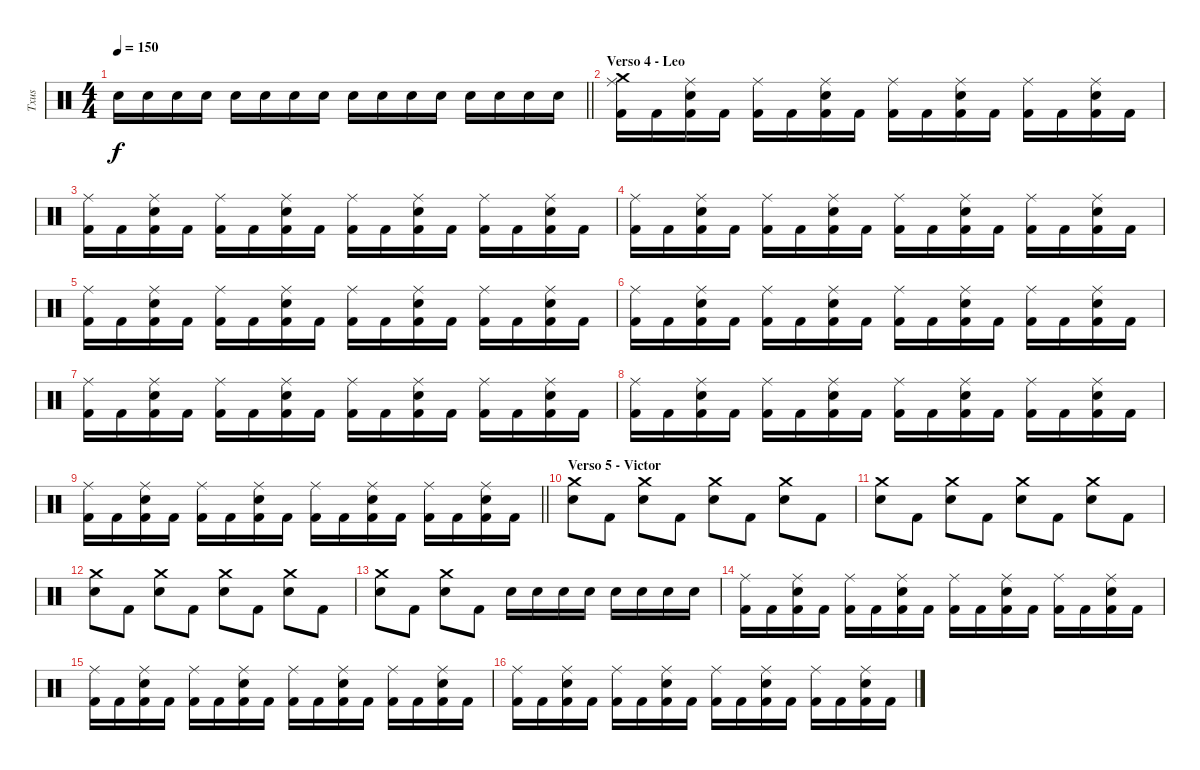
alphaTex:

\track ("Txus" "Txus") {instrument percussion}
\staff {score}
\articulation defaults
\ts (4 4)
\tempo 150
\clef neutral
\barLineRight lightlight
\ks c "Electric Snare (hit)".16{dy f} "Electric Snare (hit)".16 "Electric Snare (hit)".16 "Electric Snare (hit)".16 "Electric Snare (hit)".16 "Electric Snare (hit)".16 "Electric Snare (hit)".16 "Electric Snare (hit)".16 "Electric Snare (hit)".16 "Electric Snare (hit)".16 "Electric Snare (hit)".16 "Electric Snare (hit)".16 "Electric Snare (hit)".16 "Electric Snare (hit)".16 "Electric Snare (hit)".16 "Electric Snare (hit)".16
|
\section ("" "Verso 4 - Leo")
("Crash medium (hit)" "Ride (middle)" "Kick (hit) 2").16 "Kick (hit) 2".16 ("Ride (middle)" "Electric Snare (hit)" "Kick (hit) 2").16 "Kick (hit) 2".16 ("Ride (middle)" "Kick (hit) 2").16 "Kick (hit) 2".16 ("Ride (middle)" "Electric Snare (hit)" "Kick (hit) 2").16 "Kick (hit) 2".16 ("Ride (middle)" "Kick (hit) 2").16 "Kick (hit) 2".16 ("Ride (middle)" "Electric Snare (hit)" "Kick (hit) 2").16 "Kick (hit) 2".16 ("Ride (middle)" "Kick (hit) 2").16 "Kick (hit) 2".16 ("Ride (middle)" "Electric Snare (hit)" "Kick (hit) 2").16 "Kick (hit) 2".16 |
("Ride (middle)" "Kick (hit) 2").16 "Kick (hit) 2".16 ("Ride (middle)" "Electric Snare (hit)" "Kick (hit) 2").16 "Kick (hit) 2".16 ("Ride (middle)" "Kick (hit) 2").16 "Kick (hit) 2".16 ("Ride (middle)" "Electric Snare (hit)" "Kick (hit) 2").16 "Kick (hit) 2".16 ("Ride (middle)" "Kick (hit) 2").16 "Kick (hit) 2".16 ("Ride (middle)" "Electric Snare (hit)" "Kick (hit) 2").16 "Kick (hit) 2".16 ("Ride (middle)" "Kick (hit) 2").16 "Kick (hit) 2".16 ("Ride (middle)" "Electric Snare (hit)" "Kick (hit) 2").16 "Kick (hit) 2".16 |
("Ride (middle)" "Kick (hit) 2").16 "Kick (hit) 2".16 ("Ride (middle)" "Electric Snare (hit)" "Kick (hit) 2").16 "Kick (hit) 2".16 ("Ride (middle)" "Kick (hit) 2").16 "Kick (hit) 2".16 ("Ride (middle)" "Electric Snare (hit)" "Kick (hit) 2").16 "Kick (hit) 2".16 ("Ride (middle)" "Kick (hit) 2").16 "Kick (hit) 2".16 ("Ride (middle)" "Electric Snare (hit)" "Kick (hit) 2").16 "Kick (hit) 2".16 ("Ride (middle)" "Kick (hit) 2").16 "Kick (hit) 2".16 ("Ride (middle)" "Electric Snare (hit)" "Kick (hit) 2").16 "Kick (hit) 2".16 |
("Ride (middle)" "Kick (hit) 2").16 "Kick (hit) 2".16 ("Ride (middle)" "Electric Snare (hit)" "Kick (hit) 2").16 "Kick (hit) 2".16 ("Ride (middle)" "Kick (hit) 2").16 "Kick (hit) 2".16 ("Ride (middle)" "Electric Snare (hit)" "Kick (hit) 2").16 "Kick (hit) 2".16 ("Ride (middle)" "Kick (hit) 2").16 "Kick (hit) 2".16 ("Ride (middle)" "Electric Snare (hit)" "Kick (hit) 2").16 "Kick (hit) 2".16 ("Ride (middle)" "Kick (hit) 2").16 "Kick (hit) 2".16 ("Ride (middle)" "Electric Snare (hit)" "Kick (hit) 2").16 "Kick (hit) 2".16 |
("Ride (middle)" "Kick (hit) 2").16 "Kick (hit) 2".16 ("Ride (middle)" "Electric Snare (hit)" "Kick (hit) 2").16 "Kick (hit) 2".16 ("Ride (middle)" "Kick (hit) 2").16 "Kick (hit) 2".16 ("Ride (middle)" "Electric Snare (hit)" "Kick (hit) 2").16 "Kick (hit) 2".16 ("Ride (middle)" "Kick (hit) 2").16 "Kick (hit) 2".16 ("Ride (middle)" "Electric Snare (hit)" "Kick (hit) 2").16 "Kick (hit) 2".16 ("Ride (middle)" "Kick (hit) 2").16 "Kick (hit) 2".16 ("Ride (middle)" "Electric Snare (hit)" "Kick (hit) 2").16 "Kick (hit) 2".16 |
("Ride (middle)" "Kick (hit) 2").16 "Kick (hit) 2".16 ("Ride (middle)" "Electric Snare (hit)" "Kick (hit) 2").16 "Kick (hit) 2".16 ("Ride (middle)" "Kick (hit) 2").16 "Kick (hit) 2".16 ("Ride (middle)" "Electric Snare (hit)" "Kick (hit) 2").16 "Kick (hit) 2".16 ("Ride (middle)" "Kick (hit) 2").16 "Kick (hit) 2".16 ("Ride (middle)" "Electric Snare (hit)" "Kick (hit) 2").16 "Kick (hit) 2".16 ("Ride (middle)" "Kick (hit) 2").16 "Kick (hit) 2".16 ("Ride (middle)" "Electric Snare (hit)" "Kick (hit) 2").16 "Kick (hit) 2".16 |
("Ride (middle)" "Kick (hit) 2").16 "Kick (hit) 2".16 ("Ride (middle)" "Electric Snare (hit)" "Kick (hit) 2").16 "Kick (hit) 2".16 ("Ride (middle)" "Kick (hit) 2").16 "Kick (hit) 2".16 ("Ride (middle)" "Electric Snare (hit)" "Kick (hit) 2").16 "Kick (hit) 2".16 ("Ride (middle)" "Kick (hit) 2").16 "Kick (hit) 2".16 ("Ride (middle)" "Electric Snare (hit)" "Kick (hit) 2").16 "Kick (hit) 2".16 ("Ride (middle)" "Kick (hit) 2").16 "Kick (hit) 2".16 ("Ride (middle)" "Electric Snare (hit)" "Kick (hit) 2").16 "Kick (hit) 2".16 |
\barLineRight lightlight
("Ride (middle)" "Kick (hit) 2").16 "Kick (hit) 2".16 ("Ride (middle)" "Electric Snare (hit)" "Kick (hit) 2").16 "Kick (hit) 2".16 ("Ride (middle)" "Kick (hit) 2").16 "Kick (hit) 2".16 ("Ride (middle)" "Electric Snare (hit)" "Kick (hit) 2").16 "Kick (hit) 2".16 ("Ride (middle)" "Kick (hit) 2").16 "Kick (hit) 2".16 ("Ride (middle)" "Electric Snare (hit)" "Kick (hit) 2").16 "Kick (hit) 2".16 ("Ride (middle)" "Kick (hit) 2").16 "Kick (hit) 2".16 ("Ride (middle)" "Electric Snare (hit)" "Kick (hit) 2").16 "Kick (hit) 2".16 |
\section ("" "Verso 5 - Victor")
("Crash medium (hit)" "Electric Snare (hit)").8 "Kick (hit) 2".8 ("Crash medium (hit)" "Electric Snare (hit)").8 "Kick (hit) 2".8 ("Crash medium (hit)" "Electric Snare (hit)").8 "Kick (hit) 2".8 ("Crash medium (hit)" "Electric Snare (hit)").8 "Kick (hit) 2".8 |
("Crash medium (hit)" "Electric Snare (hit)").8 "Kick (hit) 2".8 ("Crash medium (hit)" "Electric Snare (hit)").8 "Kick (hit) 2".8 ("Crash medium (hit)" "Electric Snare (hit)").8 "Kick (hit) 2".8 ("Crash medium (hit)" "Electric Snare (hit)").8 "Kick (hit) 2".8 |
("Crash medium (hit)" "Electric Snare (hit)").8 "Kick (hit) 2".8 ("Crash medium (hit)" "Electric Snare (hit)").8 "Kick (hit) 2".8 ("Crash medium (hit)" "Electric Snare (hit)").8 "Kick (hit) 2".8 ("Crash medium (hit)" "Electric Snare (hit)").8 "Kick (hit) 2".8 |
("Crash medium (hit)" "Electric Snare (hit)").8 "Kick (hit) 2".8 ("Crash medium (hit)" "Electric Snare (hit)").8 "Kick (hit) 2".8 "Electric Snare (hit)".16 "Electric Snare (hit)".16 "Electric Snare (hit)".16 "Electric Snare (hit)".16 "Electric Snare (hit)".16 "Electric Snare (hit)".16 "Electric Snare (hit)".16 "Electric Snare (hit)".16 |
("Ride (middle)" "Kick (hit) 2").16 "Kick (hit) 2".16 ("Ride (middle)" "Electric Snare (hit)" "Kick (hit) 2").16 "Kick (hit) 2".16 ("Ride (middle)" "Kick (hit) 2").16 "Kick (hit) 2".16 ("Ride (middle)" "Electric Snare (hit)" "Kick (hit) 2").16 "Kick (hit) 2".16 ("Ride (middle)" "Kick (hit) 2").16 "Kick (hit) 2".16 ("Ride (middle)" "Electric Snare (hit)" "Kick (hit) 2").16 "Kick (hit) 2".16 ("Ride (middle)" "Kick (hit) 2").16 "Kick (hit) 2".16 ("Ride (middle)" "Electric Snare (hit)" "Kick (hit) 2").16 "Kick (hit) 2".16 |
("Ride (middle)" "Kick (hit) 2").16 "Kick (hit) 2".16 ("Ride (middle)" "Electric Snare (hit)" "Kick (hit) 2").16 "Kick (hit) 2".16 ("Ride (middle)" "Kick (hit) 2").16 "Kick (hit) 2".16 ("Ride (middle)" "Electric Snare (hit)" "Kick (hit) 2").16 "Kick (hit) 2".16 ("Ride (middle)" "Kick (hit) 2").16 "Kick (hit) 2".16 ("Ride (middle)" "Electric Snare (hit)" "Kick (hit) 2").16 "Kick (hit) 2".16 ("Ride (middle)" "Kick (hit) 2").16 "Kick (hit) 2".16 ("Ride (middle)" "Electric Snare (hit)" "Kick (hit) 2").16 "Kick (hit) 2".16 |
("Ride (middle)" "Kick (hit) 2").16 "Kick (hit) 2".16 ("Ride (middle)" "Electric Snare (hit)" "Kick (hit) 2").16 "Kick (hit) 2".16 ("Ride (middle)" "Kick (hit) 2").16 "Kick (hit) 2".16 ("Ride (middle)" "Electric Snare (hit)" "Kick (hit) 2").16 "Kick (hit) 2".16 ("Ride (middle)" "Kick (hit) 2").16 "Kick (hit) 2".16 ("Ride (middle)" "Electric Snare (hit)" "Kick (hit) 2").16 "Kick (hit) 2".16 ("Ride (middle)" "Kick (hit) 2").16 "Kick (hit) 2".16 ("Ride (middle)" "Electric Snare (hit)" "Kick (hit) 2").16 "Kick (hit) 2".16
